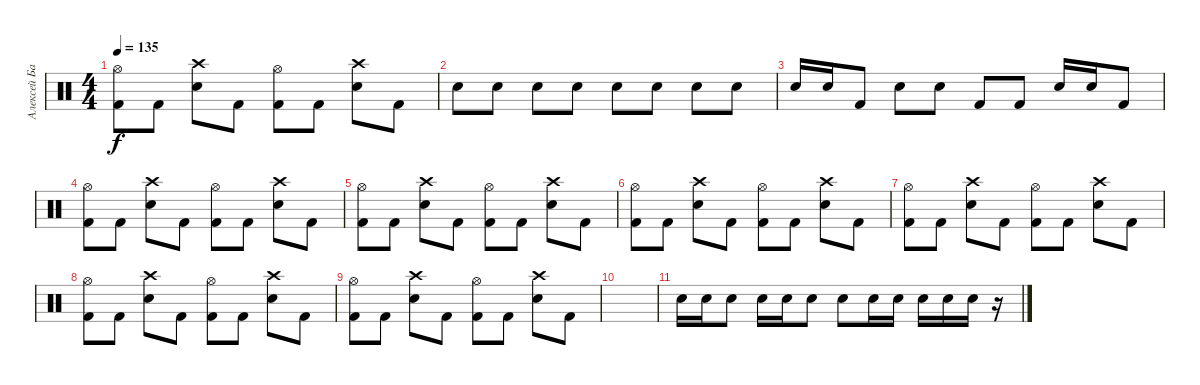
\track ("Алексей Барзилович" "Алексей Ба") {instrument percussion}
\staff {score}
\articulation defaults
\ts (4 4)
\tempo 135
\clef neutral
\ks c
("Kick (hit) 2" "Hi-Hat (open)").8{dy f} "Kick (hit) 2".8 ("Electric Snare (hit)" "Crash high (hit)").8 "Kick (hit) 2".8 ("Kick (hit) 2" "Hi-Hat (open)").8 "Kick (hit) 2".8 ("Electric Snare (hit)" "Crash high (hit)").8 "Kick (hit) 2".8 |
"Electric Snare (hit)".8 "Electric Snare (hit)".8 "Electric Snare (hit)".8 "Electric Snare (hit)".8 "Electric Snare (hit)".8 "Electric Snare (hit)".8 "Electric Snare (hit)".8 "Electric Snare (hit)".8 |
"Electric Snare (hit)".16 "Electric Snare (hit)".16 "Kick (hit) 2".8 "Electric Snare (hit)".8 "Electric Snare (hit)".8 "Kick (hit) 2".8 "Kick (hit) 2".8 "Electric Snare (hit)".16 "Electric Snare (hit)".16 "Kick (hit) 2".8 |
("Kick (hit) 2" "Hi-Hat (open)").8 "Kick (hit) 2".8 ("Electric Snare (hit)" "Crash high (hit)").8 "Kick (hit) 2".8 ("Kick (hit) 2" "Hi-Hat (open)").8 "Kick (hit) 2".8 ("Electric Snare (hit)" "Crash high (hit)").8 "Kick (hit) 2".8 |
("Kick (hit) 2" "Hi-Hat (open)").8 "Kick (hit) 2".8 ("Electric Snare (hit)" "Crash high (hit)").8 "Kick (hit) 2".8 ("Kick (hit) 2" "Hi-Hat (open)").8 "Kick (hit) 2".8 ("Electric Snare (hit)" "Crash high (hit)").8 "Kick (hit) 2".8 |
("Kick (hit) 2" "Hi-Hat (open)").8 "Kick (hit) 2".8 ("Electric Snare (hit)" "Crash high (hit)").8 "Kick (hit) 2".8 ("Kick (hit) 2" "Hi-Hat (open)").8 "Kick (hit) 2".8 ("Electric Snare (hit)" "Crash high (hit)").8 "Kick (hit) 2".8 |
("Kick (hit) 2" "Hi-Hat (open)").8 "Kick (hit) 2".8 ("Electric Snare (hit)" "Crash high (hit)").8 "Kick (hit) 2".8 ("Kick (hit) 2" "Hi-Hat (open)").8 "Kick (hit) 2".8 ("Electric Snare (hit)" "Crash high (hit)").8 "Kick (hit) 2".8 |
("Kick (hit) 2" "Hi-Hat (open)").8 "Kick (hit) 2".8 ("Electric Snare (hit)" "Crash high (hit)").8 "Kick (hit) 2".8 ("Kick (hit) 2" "Hi-Hat (open)").8 "Kick (hit) 2".8 ("Electric Snare (hit)" "Crash high (hit)").8 "Kick (hit) 2".8 |
("Kick (hit) 2" "Hi-Hat (open)").8 "Kick (hit) 2".8 ("Electric Snare (hit)" "Crash high (hit)").8 "Kick (hit) 2".8 ("Kick (hit) 2" "Hi-Hat (open)").8 "Kick (hit) 2".8 ("Electric Snare (hit)" "Crash high (hit)").8 "Kick (hit) 2".8 |
|
"Electric Snare (hit)".16 "Electric Snare (hit)".16 "Electric Snare (hit)".8 "Electric Snare (hit)".16 "Electric Snare (hit)".16 "Electric Snare (hit)".8 "Electric Snare (hit)".8 "Electric Snare (hit)".16 "Electric Snare (hit)".16 "Electric Snare (hit)".16 "Electric Snare (hit)".16 "Electric Snare (hit)".16 r.16
